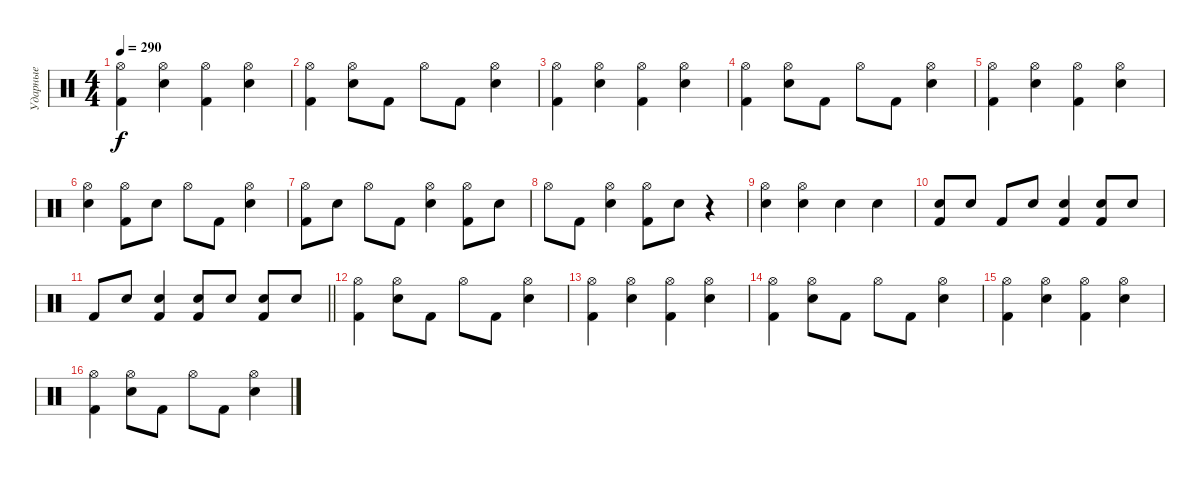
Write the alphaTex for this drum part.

\track ("Ударные" "Ударные") {instrument percussion}
\staff {score}
\articulation defaults
\ts (4 4)
\tempo 290
\clef neutral
\ks c
("Kick (hit) 2" "Hi-Hat (open)").4{dy f} ("Snare (hit) 2" "Hi-Hat (open)").4 ("Kick (hit) 2" "Hi-Hat (open)").4 ("Snare (hit) 2" "Hi-Hat (open)").4 |
("Kick (hit) 2" "Hi-Hat (open)").4 ("Snare (hit) 2" "Hi-Hat (open)").8 "Kick (hit) 2".8 "Hi-Hat (open)".8 "Kick (hit) 2".8 ("Snare (hit) 2" "Hi-Hat (open)").4 |
("Kick (hit) 2" "Hi-Hat (open)").4 ("Snare (hit) 2" "Hi-Hat (open)").4 ("Kick (hit) 2" "Hi-Hat (open)").4 ("Snare (hit) 2" "Hi-Hat (open)").4 |
("Kick (hit) 2" "Hi-Hat (open)").4 ("Snare (hit) 2" "Hi-Hat (open)").8 "Kick (hit) 2".8 "Hi-Hat (open)".8 "Kick (hit) 2".8 ("Snare (hit) 2" "Hi-Hat (open)").4 |
("Kick (hit) 2" "Hi-Hat (open)").4 ("Snare (hit) 2" "Hi-Hat (open)").4 ("Kick (hit) 2" "Hi-Hat (open)").4 ("Snare (hit) 2" "Hi-Hat (open)").4 |
("Snare (hit) 2" "Hi-Hat (open)").4 ("Kick (hit) 2" "Hi-Hat (open)").8 "Snare (hit) 2".8 "Hi-Hat (open)".8 "Kick (hit) 2".8 ("Snare (hit) 2" "Hi-Hat (open)").4 |
("Kick (hit) 2" "Hi-Hat (open)").8 "Snare (hit) 2".8 "Hi-Hat (open)".8 "Kick (hit) 2".8 ("Snare (hit) 2" "Hi-Hat (open)").4 ("Kick (hit) 2" "Hi-Hat (open)").8 "Snare (hit) 2".8 |
"Hi-Hat (open)".8 "Kick (hit) 2".8 ("Snare (hit) 2" "Hi-Hat (open)").4 ("Kick (hit) 2" "Hi-Hat (open)").8 "Snare (hit) 2".8 r.4 |
("Snare (hit) 2" "Hi-Hat (open)").4 ("Snare (hit) 2" "Hi-Hat (open)").4 "Snare (hit) 2".4 "Snare (hit) 2".4 |
("Kick (hit) 2" "Snare (hit) 2").8 "Snare (hit) 2".8 "Kick (hit) 2".8 "Snare (hit) 2".8 ("Kick (hit) 2" "Snare (hit) 2").4 ("Kick (hit) 2" "Snare (hit) 2").8 "Snare (hit) 2".8 |
\barLineRight lightlight "Kick (hit) 2".8 "Snare (hit) 2".8
("Kick (hit) 2" "Snare (hit) 2").4 ("Kick (hit) 2" "Snare (hit) 2").8 "Snare (hit) 2".8 ("Kick (hit) 2" "Snare (hit) 2").8 "Snare (hit) 2".8 |
("Kick (hit) 2" "Hi-Hat (open)").4 ("Snare (hit) 2" "Hi-Hat (open)").8 "Kick (hit) 2".8 "Hi-Hat (open)".8 "Kick (hit) 2".8 ("Snare (hit) 2" "Hi-Hat (open)").4 |
("Kick (hit) 2" "Hi-Hat (open)").4 ("Snare (hit) 2" "Hi-Hat (open)").4 ("Kick (hit) 2" "Hi-Hat (open)").4 ("Snare (hit) 2" "Hi-Hat (open)").4 |
("Kick (hit) 2" "Hi-Hat (open)").4 ("Snare (hit) 2" "Hi-Hat (open)").8 "Kick (hit) 2".8 "Hi-Hat (open)".8 "Kick (hit) 2".8 ("Snare (hit) 2" "Hi-Hat (open)").4 |
("Kick (hit) 2" "Hi-Hat (open)").4 ("Snare (hit) 2" "Hi-Hat (open)").4 ("Kick (hit) 2" "Hi-Hat (open)").4 ("Snare (hit) 2" "Hi-Hat (open)").4 |
("Kick (hit) 2" "Hi-Hat (open)").4 ("Snare (hit) 2" "Hi-Hat (open)").8 "Kick (hit) 2".8 "Hi-Hat (open)".8 "Kick (hit) 2".8 ("Snare (hit) 2" "Hi-Hat (open)").4
